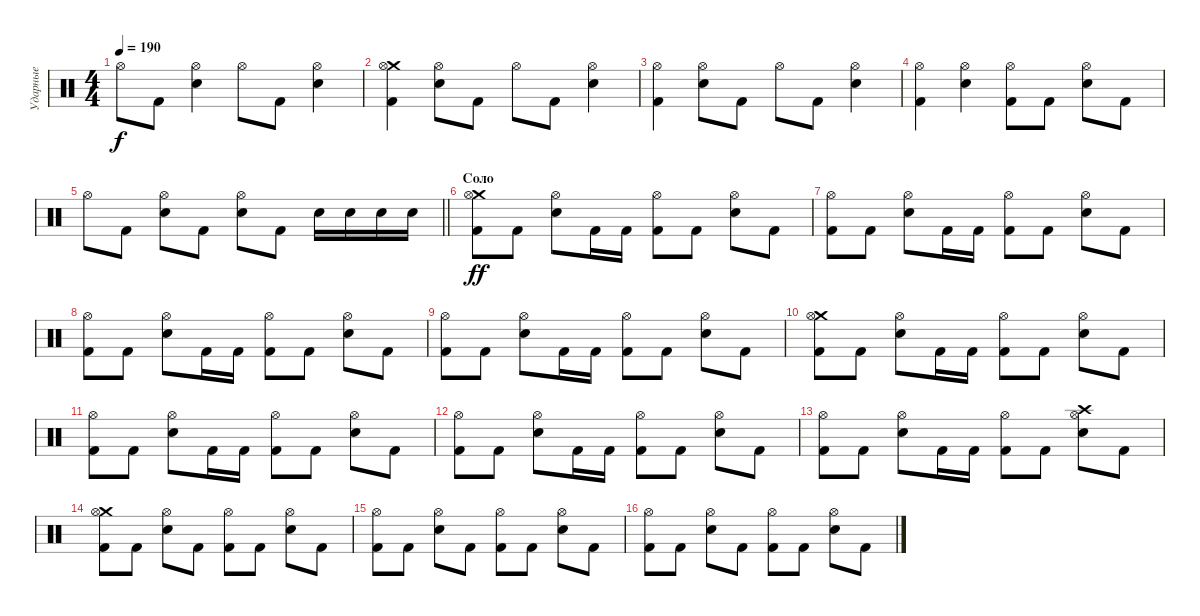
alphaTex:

\track ("Ударные" "Ударные") {instrument percussion}
\staff {score}
\articulation defaults
\ts (4 4)
\tempo 190
\clef neutral
\ks c "Hi-Hat (open)".8{dy f} "Kick (hit) 2".8
("Electric Snare (hit)" "Hi-Hat (open)").4 "Hi-Hat (open)".8 "Kick (hit) 2".8 ("Electric Snare (hit)" "Hi-Hat (open)").4 |
("Crash medium (hit)" "Kick (hit) 2" "Hi-Hat (open)").4 ("Electric Snare (hit)" "Hi-Hat (open)").8 "Kick (hit) 2".8 "Hi-Hat (open)".8 "Kick (hit) 2".8 ("Electric Snare (hit)" "Hi-Hat (open)").4 |
("Kick (hit) 2" "Hi-Hat (open)").4 ("Electric Snare (hit)" "Hi-Hat (open)").8 "Kick (hit) 2".8 "Hi-Hat (open)".8 "Kick (hit) 2".8 ("Electric Snare (hit)" "Hi-Hat (open)").4 |
("Kick (hit) 2" "Hi-Hat (open)").4 ("Electric Snare (hit)" "Hi-Hat (open)").4 ("Kick (hit) 2" "Hi-Hat (open)").8 "Kick (hit) 2".8 ("Electric Snare (hit)" "Hi-Hat (open)").8 "Kick (hit) 2".8 |
\barLineRight lightlight "Hi-Hat (open)".8 "Kick (hit) 2".8
("Electric Snare (hit)" "Hi-Hat (open)").8 "Kick (hit) 2".8 ("Electric Snare (hit)" "Hi-Hat (open)").8 "Kick (hit) 2".8 "Electric Snare (hit)".16 "Electric Snare (hit)".16 "Electric Snare (hit)".16 "Electric Snare (hit)".16 |
\section ("" "Соло")
("Crash medium (hit)" "Kick (hit) 2" "Hi-Hat (open)").8{dy ff} "Kick (hit) 2".8 ("Electric Snare (hit)" "Hi-Hat (open)").8 "Kick (hit) 2".16 "Kick (hit) 2".16 ("Kick (hit) 2" "Hi-Hat (open)").8 "Kick (hit) 2".8 ("Electric Snare (hit)" "Hi-Hat (open)").8 "Kick (hit) 2".8 |
("Kick (hit) 2" "Hi-Hat (open)").8 "Kick (hit) 2".8 ("Electric Snare (hit)" "Hi-Hat (open)").8 "Kick (hit) 2".16 "Kick (hit) 2".16 ("Kick (hit) 2" "Hi-Hat (open)").8 "Kick (hit) 2".8 ("Electric Snare (hit)" "Hi-Hat (open)").8 "Kick (hit) 2".8 |
("Kick (hit) 2" "Hi-Hat (open)").8 "Kick (hit) 2".8 ("Electric Snare (hit)" "Hi-Hat (open)").8 "Kick (hit) 2".16 "Kick (hit) 2".16 ("Kick (hit) 2" "Hi-Hat (open)").8 "Kick (hit) 2".8 ("Electric Snare (hit)" "Hi-Hat (open)").8 "Kick (hit) 2".8 |
("Kick (hit) 2" "Hi-Hat (open)").8 "Kick (hit) 2".8 ("Electric Snare (hit)" "Hi-Hat (open)").8 "Kick (hit) 2".16 "Kick (hit) 2".16 ("Kick (hit) 2" "Hi-Hat (open)").8 "Kick (hit) 2".8 ("Electric Snare (hit)" "Hi-Hat (open)").8 "Kick (hit) 2".8 |
("Crash medium (hit)" "Kick (hit) 2" "Hi-Hat (open)").8 "Kick (hit) 2".8 ("Electric Snare (hit)" "Hi-Hat (open)").8 "Kick (hit) 2".16 "Kick (hit) 2".16 ("Kick (hit) 2" "Hi-Hat (open)").8 "Kick (hit) 2".8 ("Electric Snare (hit)" "Hi-Hat (open)").8 "Kick (hit) 2".8 |
("Kick (hit) 2" "Hi-Hat (open)").8 "Kick (hit) 2".8 ("Electric Snare (hit)" "Hi-Hat (open)").8 "Kick (hit) 2".16 "Kick (hit) 2".16 ("Kick (hit) 2" "Hi-Hat (open)").8 "Kick (hit) 2".8 ("Electric Snare (hit)" "Hi-Hat (open)").8 "Kick (hit) 2".8 |
("Kick (hit) 2" "Hi-Hat (open)").8 "Kick (hit) 2".8 ("Electric Snare (hit)" "Hi-Hat (open)").8 "Kick (hit) 2".16 "Kick (hit) 2".16 ("Kick (hit) 2" "Hi-Hat (open)").8 "Kick (hit) 2".8 ("Electric Snare (hit)" "Hi-Hat (open)").8 "Kick (hit) 2".8 |
("Kick (hit) 2" "Hi-Hat (open)").8 "Kick (hit) 2".8 ("Electric Snare (hit)" "Hi-Hat (open)").8 "Kick (hit) 2".16 "Kick (hit) 2".16 ("Kick (hit) 2" "Hi-Hat (open)").8 "Kick (hit) 2".8 ("Crash high (hit)" "Electric Snare (hit)" "Hi-Hat (open)").8 "Kick (hit) 2".8 |
("Crash medium (hit)" "Kick (hit) 2" "Hi-Hat (open)").8 "Kick (hit) 2".8 ("Electric Snare (hit)" "Hi-Hat (open)").8 "Kick (hit) 2".8 ("Kick (hit) 2" "Hi-Hat (open)").8 "Kick (hit) 2".8 ("Electric Snare (hit)" "Hi-Hat (open)").8 "Kick (hit) 2".8 |
("Kick (hit) 2" "Hi-Hat (open)").8 "Kick (hit) 2".8 ("Electric Snare (hit)" "Hi-Hat (open)").8 "Kick (hit) 2".8 ("Kick (hit) 2" "Hi-Hat (open)").8 "Kick (hit) 2".8 ("Electric Snare (hit)" "Hi-Hat (open)").8 "Kick (hit) 2".8 |
("Kick (hit) 2" "Hi-Hat (open)").8 "Kick (hit) 2".8 ("Electric Snare (hit)" "Hi-Hat (open)").8 "Kick (hit) 2".8 ("Kick (hit) 2" "Hi-Hat (open)").8 "Kick (hit) 2".8 ("Electric Snare (hit)" "Hi-Hat (open)").8 "Kick (hit) 2".8
